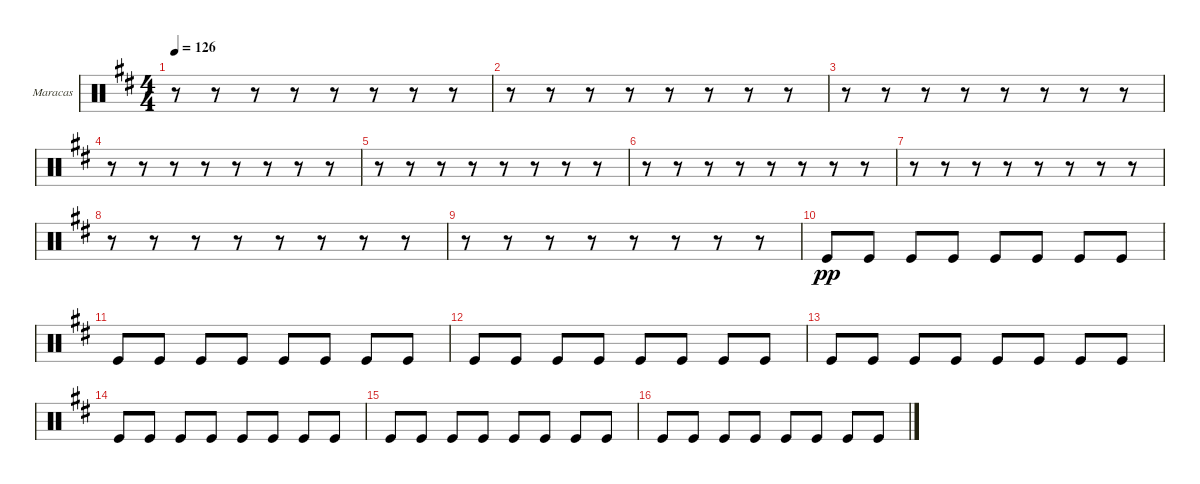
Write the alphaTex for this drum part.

\bracketExtendMode groupsimilarinstruments
\firstSystemTrackNameOrientation horizontal
\otherSystemsTrackNameOrientation horizontal
\track ("Maracas" "Maracas") {instrument percussion}
\staff {score}
\articulation defaults
\ts (4 4)
\tempo 126
\clef neutral
\ks d
r.8{dy f} r.8 r.8 r.8 r.8 r.8 r.8 r.8 |
r.8 r.8 r.8 r.8 r.8 r.8 r.8 r.8 |
r.8 r.8 r.8 r.8 r.8 r.8 r.8 r.8 |
r.8 r.8 r.8 r.8 r.8 r.8 r.8 r.8 |
r.8 r.8 r.8 r.8 r.8 r.8 r.8 r.8 |
r.8 r.8 r.8 r.8 r.8 r.8 r.8 r.8 |
r.8 r.8 r.8 r.8 r.8 r.8 r.8 r.8 |
r.8 r.8 r.8 r.8 r.8 r.8 r.8 r.8 |
r.8 r.8 r.8 r.8 r.8 r.8 r.8 r.8 |
"Kick (hit)".8{dy pp} "Kick (hit)".8 "Kick (hit)".8 "Kick (hit)".8 "Kick (hit)".8 "Kick (hit)".8 "Kick (hit)".8 "Kick (hit)".8 |
"Kick (hit)".8 "Kick (hit)".8 "Kick (hit)".8 "Kick (hit)".8 "Kick (hit)".8 "Kick (hit)".8 "Kick (hit)".8 "Kick (hit)".8 |
"Kick (hit)".8 "Kick (hit)".8 "Kick (hit)".8 "Kick (hit)".8 "Kick (hit)".8 "Kick (hit)".8 "Kick (hit)".8 "Kick (hit)".8 |
"Kick (hit)".8 "Kick (hit)".8 "Kick (hit)".8 "Kick (hit)".8 "Kick (hit)".8 "Kick (hit)".8 "Kick (hit)".8 "Kick (hit)".8 |
"Kick (hit)".8 "Kick (hit)".8 "Kick (hit)".8 "Kick (hit)".8 "Kick (hit)".8 "Kick (hit)".8 "Kick (hit)".8 "Kick (hit)".8 |
"Kick (hit)".8 "Kick (hit)".8 "Kick (hit)".8 "Kick (hit)".8 "Kick (hit)".8 "Kick (hit)".8 "Kick (hit)".8 "Kick (hit)".8 |
"Kick (hit)".8 "Kick (hit)".8 "Kick (hit)".8 "Kick (hit)".8 "Kick (hit)".8 "Kick (hit)".8 "Kick (hit)".8 "Kick (hit)".8
